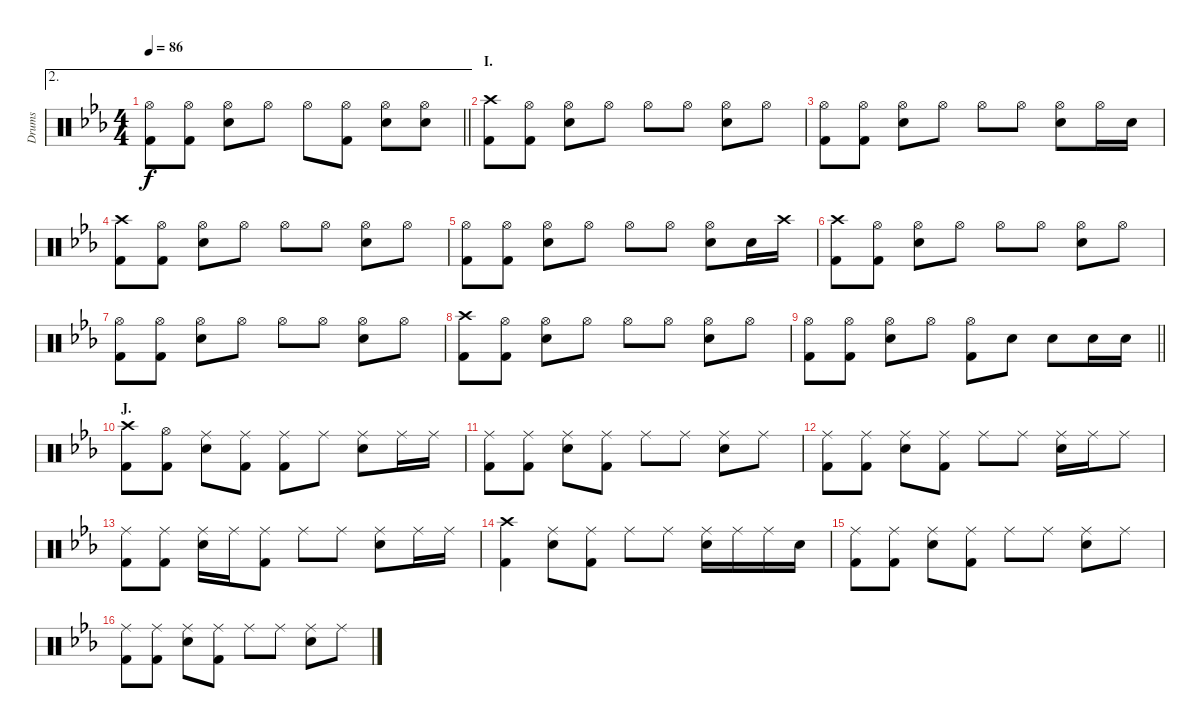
\track ("Drums" "Drums") {instrument percussion}
\staff {score}
\articulation defaults
\ae 2
\ts (4 4)
\tempo 86
\clef neutral
\barLineRight lightlight
\ks eb
("Hi-Hat (open)" "Kick (hit) 2").8{dy f} ("Hi-Hat (open)" "Kick (hit) 2").8 ("Hi-Hat (open)" "Snare (hit) 2").8 "Hi-Hat (open)".8 "Hi-Hat (open)".8 ("Hi-Hat (open)" "Kick (hit) 2").8 ("Hi-Hat (open)" "Snare (hit) 2").8 ("Hi-Hat (open)" "Snare (hit) 2").8 |
\section ("" "I.")
("Crash high (hit)" "Kick (hit) 2").8 ("Hi-Hat (open)" "Kick (hit) 2").8 ("Hi-Hat (open)" "Snare (hit) 2").8 "Hi-Hat (open)".8 "Hi-Hat (open)".8 "Hi-Hat (open)".8 ("Hi-Hat (open)" "Snare (hit) 2").8 "Hi-Hat (open)".8 |
("Hi-Hat (open)" "Kick (hit) 2").8 ("Hi-Hat (open)" "Kick (hit) 2").8 ("Hi-Hat (open)" "Snare (hit) 2").8 "Hi-Hat (open)".8 "Hi-Hat (open)".8 "Hi-Hat (open)".8 ("Hi-Hat (open)" "Snare (hit) 2").8 "Hi-Hat (open)".16 "Snare (hit) 2".16 |
("Crash high (hit)" "Kick (hit) 2").8 ("Hi-Hat (open)" "Kick (hit) 2").8 ("Hi-Hat (open)" "Snare (hit) 2").8 "Hi-Hat (open)".8 "Hi-Hat (open)".8 "Hi-Hat (open)".8 ("Hi-Hat (open)" "Snare (hit) 2").8 "Hi-Hat (open)".8 |
("Hi-Hat (open)" "Kick (hit) 2").8 ("Hi-Hat (open)" "Kick (hit) 2").8 ("Hi-Hat (open)" "Snare (hit) 2").8 "Hi-Hat (open)".8 "Hi-Hat (open)".8 "Hi-Hat (open)".8 ("Hi-Hat (open)" "Snare (hit) 2").8 "Snare (hit) 2".16 "Crash high (hit)".16 |
("Crash high (hit)" "Kick (hit) 2").8 ("Hi-Hat (open)" "Kick (hit) 2").8 ("Hi-Hat (open)" "Snare (hit) 2").8 "Hi-Hat (open)".8 "Hi-Hat (open)".8 "Hi-Hat (open)".8 ("Hi-Hat (open)" "Snare (hit) 2").8 "Hi-Hat (open)".8 |
("Hi-Hat (open)" "Kick (hit) 2").8 ("Hi-Hat (open)" "Kick (hit) 2").8 ("Hi-Hat (open)" "Snare (hit) 2").8 "Hi-Hat (open)".8 "Hi-Hat (open)".8 "Hi-Hat (open)".8 ("Hi-Hat (open)" "Snare (hit) 2").8 "Hi-Hat (open)".8 |
("Crash high (hit)" "Kick (hit) 2").8 ("Hi-Hat (open)" "Kick (hit) 2").8 ("Hi-Hat (open)" "Snare (hit) 2").8 "Hi-Hat (open)".8 "Hi-Hat (open)".8 "Hi-Hat (open)".8 ("Hi-Hat (open)" "Snare (hit) 2").8 "Hi-Hat (open)".8 |
\barLineRight lightlight
("Hi-Hat (open)" "Kick (hit) 2").8 ("Hi-Hat (open)" "Kick (hit) 2").8 ("Hi-Hat (open)" "Snare (hit) 2").8 "Hi-Hat (open)".8 ("Hi-Hat (open)" "Kick (hit) 2").8 "Snare (hit) 2".8 "Snare (hit) 2".8 "Snare (hit) 2".16 "Snare (hit) 2".16 |
\section ("" "J.")
("Crash high (hit)" "Kick (hit) 2").8 ("Hi-Hat (open)" "Kick (hit) 2").8 ("Ride (middle)" "Snare (hit) 2").8 ("Ride (middle)" "Kick (hit) 2").8 ("Ride (middle)" "Kick (hit) 2").8 "Ride (middle)".8 ("Ride (middle)" "Snare (hit) 2").8 "Ride (middle)".16 "Ride (middle)".16 |
("Ride (middle)" "Kick (hit) 2").8 ("Ride (middle)" "Kick (hit) 2").8 ("Ride (middle)" "Snare (hit) 2").8 ("Ride (middle)" "Kick (hit) 2").8 "Ride (middle)".8 "Ride (middle)".8 ("Ride (middle)" "Snare (hit) 2").8 "Ride (middle)".8 |
("Ride (middle)" "Kick (hit) 2").8 ("Ride (middle)" "Kick (hit) 2").8 ("Ride (middle)" "Snare (hit) 2").8 ("Ride (middle)" "Kick (hit) 2").8 "Ride (middle)".8 "Ride (middle)".8 ("Ride (middle)" "Snare (hit) 2").16 "Ride (middle)".16 "Ride (middle)".8 |
("Ride (middle)" "Kick (hit) 2").8 ("Ride (middle)" "Kick (hit) 2").8 ("Ride (middle)" "Snare (hit) 2").16 "Ride (middle)".16 ("Ride (middle)" "Kick (hit) 2").8 "Ride (middle)".8 "Ride (middle)".8 ("Ride (middle)" "Snare (hit) 2").8 "Ride (middle)".16 "Ride (middle)".16 |
("Crash high (hit)" "Kick (hit) 2").4 ("Ride (middle)" "Snare (hit) 2").8 ("Ride (middle)" "Kick (hit) 2").8 "Ride (middle)".8 "Ride (middle)".8 ("Ride (middle)" "Snare (hit) 2").16 "Ride (middle)".16 "Ride (middle)".16 "Snare (hit) 2".16 |
("Ride (middle)" "Kick (hit) 2").8 ("Ride (middle)" "Kick (hit) 2").8 ("Ride (middle)" "Snare (hit) 2").8 ("Ride (middle)" "Kick (hit) 2").8 "Ride (middle)".8 "Ride (middle)".8 ("Ride (middle)" "Snare (hit) 2").8 "Ride (middle)".8 |
("Ride (middle)" "Kick (hit) 2").8 ("Ride (middle)" "Kick (hit) 2").8 ("Ride (middle)" "Snare (hit) 2").8 ("Ride (middle)" "Kick (hit) 2").8 "Ride (middle)".8 "Ride (middle)".8 ("Ride (middle)" "Snare (hit) 2").8 "Ride (middle)".8
